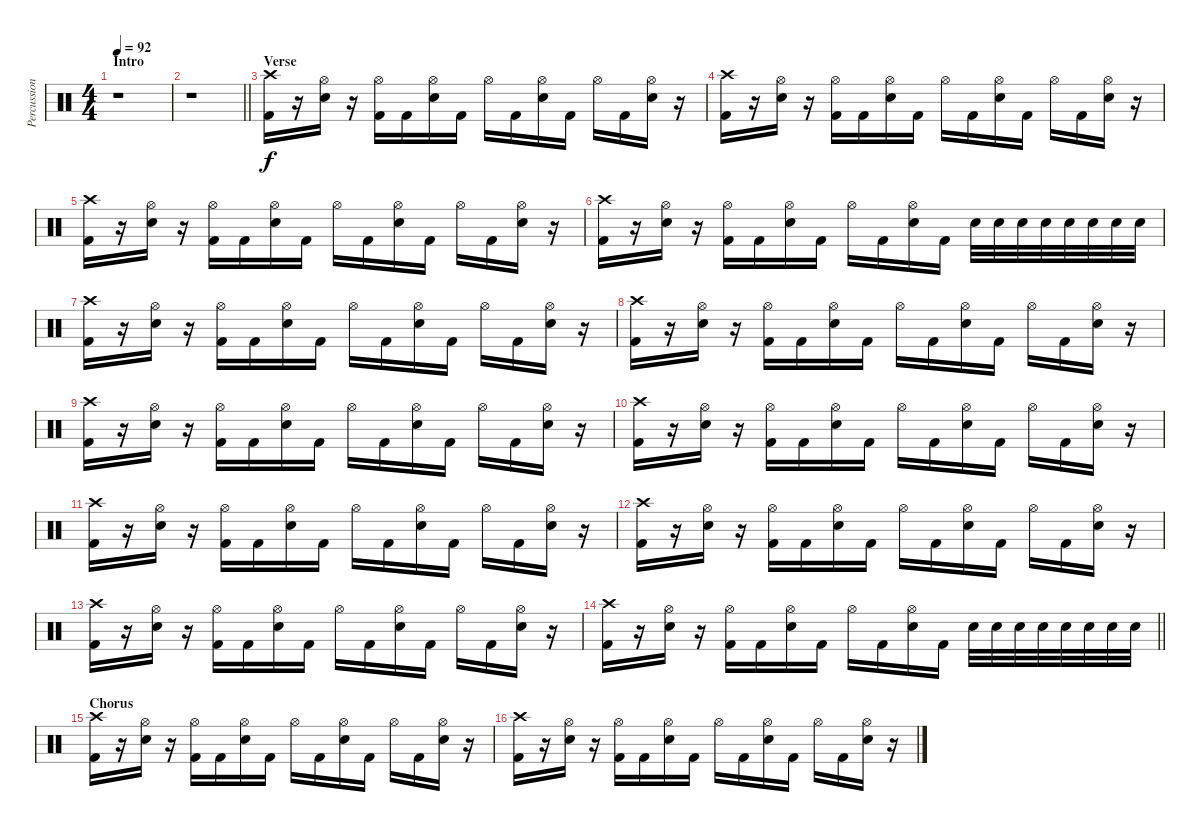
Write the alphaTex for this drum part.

\track ("Percussion" "Percussion") {instrument percussion}
\staff {score}
\articulation defaults
\ts (4 4)
\section ("" "Intro")
\tempo 92
\clef neutral
\ks c
r.1{dy f} |
\barLineRight lightlight
r.1 |
\section ("" "Verse")
("Kick (hit) 2" "Crash high (hit)").16 r.16 ("Electric Snare (hit)" "Hi-Hat (open)").16 r.16 ("Kick (hit) 2" "Hi-Hat (open)").16 "Kick (hit) 2".16 ("Electric Snare (hit)" "Hi-Hat (open)").16 "Kick (hit) 2".16 "Hi-Hat (open)".16 "Kick (hit) 2".16 ("Electric Snare (hit)" "Hi-Hat (open)").16 "Kick (hit) 2".16 "Hi-Hat (open)".16 "Kick (hit) 2".16 ("Electric Snare (hit)" "Hi-Hat (open)").16 r.16 |
("Kick (hit) 2" "Crash high (hit)").16 r.16 ("Electric Snare (hit)" "Hi-Hat (open)").16 r.16 ("Kick (hit) 2" "Hi-Hat (open)").16 "Kick (hit) 2".16 ("Electric Snare (hit)" "Hi-Hat (open)").16 "Kick (hit) 2".16 "Hi-Hat (open)".16 "Kick (hit) 2".16 ("Electric Snare (hit)" "Hi-Hat (open)").16 "Kick (hit) 2".16 "Hi-Hat (open)".16 "Kick (hit) 2".16 ("Electric Snare (hit)" "Hi-Hat (open)").16 r.16 |
("Kick (hit) 2" "Crash high (hit)").16 r.16 ("Electric Snare (hit)" "Hi-Hat (open)").16 r.16 ("Kick (hit) 2" "Hi-Hat (open)").16 "Kick (hit) 2".16 ("Electric Snare (hit)" "Hi-Hat (open)").16 "Kick (hit) 2".16 "Hi-Hat (open)".16 "Kick (hit) 2".16 ("Electric Snare (hit)" "Hi-Hat (open)").16 "Kick (hit) 2".16 "Hi-Hat (open)".16 "Kick (hit) 2".16 ("Electric Snare (hit)" "Hi-Hat (open)").16 r.16 |
("Kick (hit) 2" "Crash high (hit)").16 r.16 ("Electric Snare (hit)" "Hi-Hat (open)").16 r.16 ("Kick (hit) 2" "Hi-Hat (open)").16 "Kick (hit) 2".16 ("Electric Snare (hit)" "Hi-Hat (open)").16 "Kick (hit) 2".16 "Hi-Hat (open)".16 "Kick (hit) 2".16 ("Electric Snare (hit)" "Hi-Hat (open)").16 "Kick (hit) 2".16 "Electric Snare (hit)".32 "Electric Snare (hit)".32 "Electric Snare (hit)".32 "Electric Snare (hit)".32 "Electric Snare (hit)".32 "Electric Snare (hit)".32 "Electric Snare (hit)".32 "Electric Snare (hit)".32 |
("Kick (hit) 2" "Crash high (hit)").16 r.16 ("Electric Snare (hit)" "Hi-Hat (open)").16 r.16 ("Kick (hit) 2" "Hi-Hat (open)").16 "Kick (hit) 2".16 ("Electric Snare (hit)" "Hi-Hat (open)").16 "Kick (hit) 2".16 "Hi-Hat (open)".16 "Kick (hit) 2".16 ("Electric Snare (hit)" "Hi-Hat (open)").16 "Kick (hit) 2".16 "Hi-Hat (open)".16 "Kick (hit) 2".16 ("Electric Snare (hit)" "Hi-Hat (open)").16 r.16 |
("Kick (hit) 2" "Crash high (hit)").16 r.16 ("Electric Snare (hit)" "Hi-Hat (open)").16 r.16 ("Kick (hit) 2" "Hi-Hat (open)").16 "Kick (hit) 2".16 ("Electric Snare (hit)" "Hi-Hat (open)").16 "Kick (hit) 2".16 "Hi-Hat (open)".16 "Kick (hit) 2".16 ("Electric Snare (hit)" "Hi-Hat (open)").16 "Kick (hit) 2".16 "Hi-Hat (open)".16 "Kick (hit) 2".16 ("Electric Snare (hit)" "Hi-Hat (open)").16 r.16 |
("Kick (hit) 2" "Crash high (hit)").16 r.16 ("Electric Snare (hit)" "Hi-Hat (open)").16 r.16 ("Kick (hit) 2" "Hi-Hat (open)").16 "Kick (hit) 2".16 ("Electric Snare (hit)" "Hi-Hat (open)").16 "Kick (hit) 2".16 "Hi-Hat (open)".16 "Kick (hit) 2".16 ("Electric Snare (hit)" "Hi-Hat (open)").16 "Kick (hit) 2".16 "Hi-Hat (open)".16 "Kick (hit) 2".16 ("Electric Snare (hit)" "Hi-Hat (open)").16 r.16 |
("Kick (hit) 2" "Crash high (hit)").16 r.16 ("Electric Snare (hit)" "Hi-Hat (open)").16 r.16 ("Kick (hit) 2" "Hi-Hat (open)").16 "Kick (hit) 2".16 ("Electric Snare (hit)" "Hi-Hat (open)").16 "Kick (hit) 2".16 "Hi-Hat (open)".16 "Kick (hit) 2".16 ("Electric Snare (hit)" "Hi-Hat (open)").16 "Kick (hit) 2".16 "Hi-Hat (open)".16 "Kick (hit) 2".16 ("Electric Snare (hit)" "Hi-Hat (open)").16 r.16 |
("Kick (hit) 2" "Crash high (hit)").16 r.16 ("Electric Snare (hit)" "Hi-Hat (open)").16 r.16 ("Kick (hit) 2" "Hi-Hat (open)").16 "Kick (hit) 2".16 ("Electric Snare (hit)" "Hi-Hat (open)").16 "Kick (hit) 2".16 "Hi-Hat (open)".16 "Kick (hit) 2".16 ("Electric Snare (hit)" "Hi-Hat (open)").16 "Kick (hit) 2".16 "Hi-Hat (open)".16 "Kick (hit) 2".16 ("Electric Snare (hit)" "Hi-Hat (open)").16 r.16 |
("Kick (hit) 2" "Crash high (hit)").16 r.16 ("Electric Snare (hit)" "Hi-Hat (open)").16 r.16 ("Kick (hit) 2" "Hi-Hat (open)").16 "Kick (hit) 2".16 ("Electric Snare (hit)" "Hi-Hat (open)").16 "Kick (hit) 2".16 "Hi-Hat (open)".16 "Kick (hit) 2".16 ("Electric Snare (hit)" "Hi-Hat (open)").16 "Kick (hit) 2".16 "Hi-Hat (open)".16 "Kick (hit) 2".16 ("Electric Snare (hit)" "Hi-Hat (open)").16 r.16 |
("Kick (hit) 2" "Crash high (hit)").16 r.16 ("Electric Snare (hit)" "Hi-Hat (open)").16 r.16 ("Kick (hit) 2" "Hi-Hat (open)").16 "Kick (hit) 2".16 ("Electric Snare (hit)" "Hi-Hat (open)").16 "Kick (hit) 2".16 "Hi-Hat (open)".16 "Kick (hit) 2".16 ("Electric Snare (hit)" "Hi-Hat (open)").16 "Kick (hit) 2".16 "Hi-Hat (open)".16 "Kick (hit) 2".16 ("Electric Snare (hit)" "Hi-Hat (open)").16 r.16 |
\barLineRight lightlight
("Kick (hit) 2" "Crash high (hit)").16 r.16 ("Electric Snare (hit)" "Hi-Hat (open)").16 r.16 ("Kick (hit) 2" "Hi-Hat (open)").16 "Kick (hit) 2".16 ("Electric Snare (hit)" "Hi-Hat (open)").16 "Kick (hit) 2".16 "Hi-Hat (open)".16 "Kick (hit) 2".16 ("Electric Snare (hit)" "Hi-Hat (open)").16 "Kick (hit) 2".16 "Electric Snare (hit)".32 "Electric Snare (hit)".32 "Electric Snare (hit)".32 "Electric Snare (hit)".32 "Electric Snare (hit)".32 "Electric Snare (hit)".32 "Electric Snare (hit)".32 "Electric Snare (hit)".32 |
\section ("" "Chorus")
("Kick (hit) 2" "Crash high (hit)").16 r.16 ("Electric Snare (hit)" "Hi-Hat (open)").16 r.16 ("Kick (hit) 2" "Hi-Hat (open)").16 "Kick (hit) 2".16 ("Electric Snare (hit)" "Hi-Hat (open)").16 "Kick (hit) 2".16 "Hi-Hat (open)".16 "Kick (hit) 2".16 ("Electric Snare (hit)" "Hi-Hat (open)").16 "Kick (hit) 2".16 "Hi-Hat (open)".16 "Kick (hit) 2".16 ("Electric Snare (hit)" "Hi-Hat (open)").16 r.16 |
("Kick (hit) 2" "Crash high (hit)").16 r.16 ("Electric Snare (hit)" "Hi-Hat (open)").16 r.16 ("Kick (hit) 2" "Hi-Hat (open)").16 "Kick (hit) 2".16 ("Electric Snare (hit)" "Hi-Hat (open)").16 "Kick (hit) 2".16 "Hi-Hat (open)".16 "Kick (hit) 2".16 ("Electric Snare (hit)" "Hi-Hat (open)").16 "Kick (hit) 2".16 "Hi-Hat (open)".16 "Kick (hit) 2".16 ("Electric Snare (hit)" "Hi-Hat (open)").16 r.16
